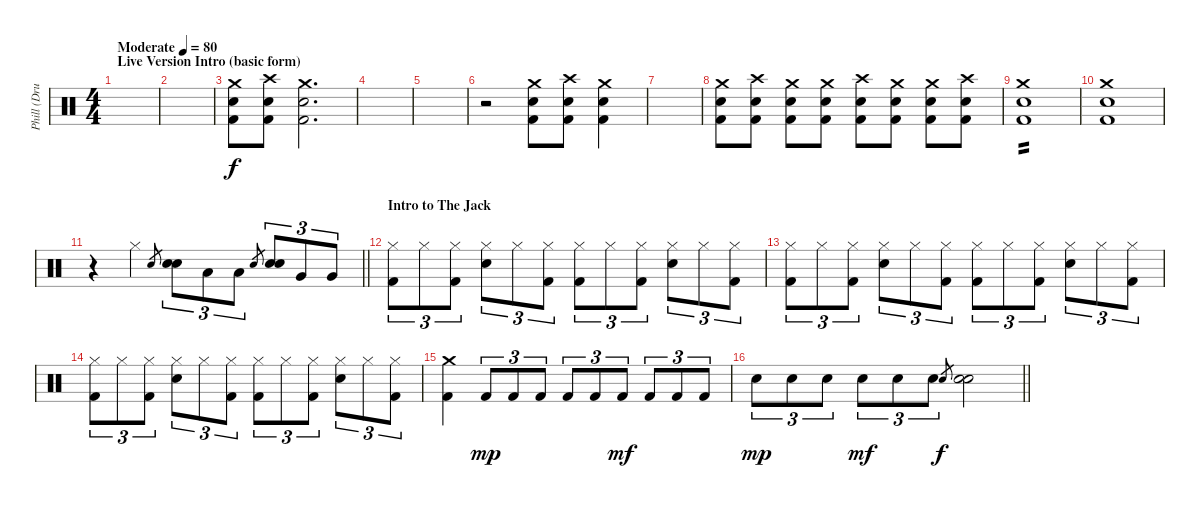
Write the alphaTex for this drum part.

\track ("Phill (Drums)" "Phill (Dru") {instrument percussion}
\staff {score}
\articulation defaults
\ts (4 4)
\section ("" "Live Version Intro (basic form)")
\tempo (80 "Moderate")
\clef neutral
\ks c
|
|
("Kick (hit) 2" "Snare (hit) 2" "Crash medium (hit)").8 ("Kick (hit) 2" "Snare (hit) 2" "Crash high (hit)").8 ("Kick (hit) 2" "Snare (hit) 2" "Crash medium (hit)").2{d} |
|
|
r.2 ("Kick (hit) 2" "Snare (hit) 2" "Crash medium (hit)").8 ("Kick (hit) 2" "Snare (hit) 2" "Crash high (hit)").8 ("Kick (hit) 2" "Snare (hit) 2" "Crash medium (hit)").4 |
|
("Kick (hit) 2" "Snare (hit) 2" "Crash medium (hit)").8 ("Kick (hit) 2" "Snare (hit) 2" "Crash high (hit)").8 ("Kick (hit) 2" "Snare (hit) 2" "Crash medium (hit)").8 ("Kick (hit) 2" "Snare (hit) 2" "Crash medium (hit)").8 ("Kick (hit) 2" "Snare (hit) 2" "Crash high (hit)").8 ("Kick (hit) 2" "Snare (hit) 2" "Crash medium (hit)").8 ("Kick (hit) 2" "Snare (hit) 2" "Crash medium (hit)").8 ("Kick (hit) 2" "Snare (hit) 2" "Crash high (hit)").8 |
("Kick (hit) 2" "Snare (hit) 2" "Crash medium (hit)").1{tp 2} |
("Kick (hit) 2" "Snare (hit) 2" "Crash medium (hit)").1 |
\barLineRight lightlight
r.4 "Hi-Hat (closed)".4 "Electric Snare (hit)".8{gr} ("Electric Snare (hit)" "Electric Snare (hit)").8{tu (3 2)} "Low Tom (hit)".8{tu (3 2)} "Low Tom (hit)".8{tu (3 2)} "Electric Snare (hit)".8{gr} ("Electric Snare (hit)" "Electric Snare (hit)").8{tu (3 2)} "Very Low Tom (hit)".8{tu (3 2)} "Very Low Tom (hit)".8{tu (3 2)} |
\section ("" "Intro to The Jack")
("Kick (hit) 2" "Hi-Hat (closed)").8{tu (3 2)} "Hi-Hat (closed)".8{tu (3 2)} ("Kick (hit) 2" "Hi-Hat (closed)").8{tu (3 2)} ("Electric Snare (hit)" "Hi-Hat (closed)").8{tu (3 2)} "Hi-Hat (closed)".8{tu (3 2)} ("Kick (hit) 2" "Hi-Hat (closed)").8{tu (3 2)} ("Kick (hit) 2" "Hi-Hat (closed)").8{tu (3 2)} "Hi-Hat (closed)".8{tu (3 2)} ("Kick (hit) 2" "Hi-Hat (closed)").8{tu (3 2)} ("Electric Snare (hit)" "Hi-Hat (closed)").8{tu (3 2)} "Hi-Hat (closed)".8{tu (3 2)} ("Kick (hit) 2" "Hi-Hat (closed)").8{tu (3 2)} |
("Kick (hit) 2" "Hi-Hat (closed)").8{tu (3 2)} "Hi-Hat (closed)".8{tu (3 2)} ("Kick (hit) 2" "Hi-Hat (closed)").8{tu (3 2)} ("Electric Snare (hit)" "Hi-Hat (closed)").8{tu (3 2)} "Hi-Hat (closed)".8{tu (3 2)} ("Kick (hit) 2" "Hi-Hat (closed)").8{tu (3 2)} ("Kick (hit) 2" "Hi-Hat (closed)").8{tu (3 2)} "Hi-Hat (closed)".8{tu (3 2)} ("Kick (hit) 2" "Hi-Hat (closed)").8{tu (3 2)} ("Electric Snare (hit)" "Hi-Hat (closed)").8{tu (3 2)} "Hi-Hat (closed)".8{tu (3 2)} ("Kick (hit) 2" "Hi-Hat (closed)").8{tu (3 2)} |
("Kick (hit) 2" "Hi-Hat (closed)").8{tu (3 2)} "Hi-Hat (closed)".8{tu (3 2)} ("Kick (hit) 2" "Hi-Hat (closed)").8{tu (3 2)} ("Electric Snare (hit)" "Hi-Hat (closed)").8{tu (3 2)} "Hi-Hat (closed)".8{tu (3 2)} ("Kick (hit) 2" "Hi-Hat (closed)").8{tu (3 2)} ("Kick (hit) 2" "Hi-Hat (closed)").8{tu (3 2)} "Hi-Hat (closed)".8{tu (3 2)} ("Kick (hit) 2" "Hi-Hat (closed)").8{tu (3 2)} ("Electric Snare (hit)" "Hi-Hat (closed)").8{tu (3 2)} "Hi-Hat (closed)".8{tu (3 2)} ("Kick (hit) 2" "Hi-Hat (closed)").8{tu (3 2)} |
("Kick (hit) 2" "Crash medium (hit)").4 "Kick (hit) 2".8{tu (3 2) dy mp} "Kick (hit) 2".8{tu (3 2)} "Kick (hit) 2".8{tu (3 2)} "Kick (hit) 2".8{tu (3 2)} "Kick (hit) 2".8{tu (3 2)} "Kick (hit) 2".8{tu (3 2) dy mf} "Kick (hit) 2".8{tu (3 2)} "Kick (hit) 2".8{tu (3 2)} "Kick (hit) 2".8{tu (3 2)} |
\barLineRight lightlight "Electric Snare (hit)".8{tu (3 2) dy mp} "Electric Snare (hit)".8{tu (3 2)} "Electric Snare (hit)".8{tu (3 2)} "Electric Snare (hit)".8{tu (3 2) dy mf} "Electric Snare (hit)".8{tu (3 2)} "Electric Snare (hit)".8{tu (3 2)} "Electric Snare (hit)".8{gr dy f}
("Electric Snare (hit)" "Electric Snare (hit)").2
